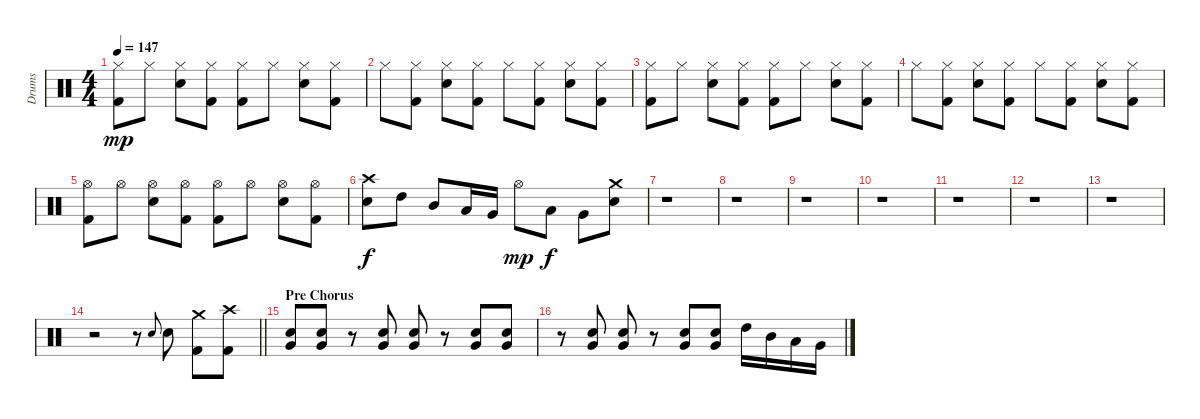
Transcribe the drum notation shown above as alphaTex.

\track ("Drums" "Drums") {instrument percussion}
\staff {score}
\articulation defaults
\ts (4 4)
\tempo 147
\clef neutral
\ks c
("Hi-Hat (closed)" "Kick (hit) 2").8{dy mp} "Hi-Hat (closed)".8 ("Hi-Hat (closed)" "Snare (hit) 2").8 ("Hi-Hat (closed)" "Kick (hit) 2").8 ("Hi-Hat (closed)" "Kick (hit) 2").8 "Hi-Hat (closed)".8 ("Hi-Hat (closed)" "Snare (hit) 2").8 ("Hi-Hat (closed)" "Kick (hit) 2").8 |
"Hi-Hat (closed)".8 ("Hi-Hat (closed)" "Kick (hit) 2").8 ("Hi-Hat (closed)" "Snare (hit) 2").8 ("Hi-Hat (closed)" "Kick (hit) 2").8 "Hi-Hat (closed)".8 ("Hi-Hat (closed)" "Kick (hit) 2").8 ("Hi-Hat (closed)" "Snare (hit) 2").8 ("Hi-Hat (closed)" "Kick (hit) 2").8 |
("Hi-Hat (closed)" "Kick (hit) 2").8 "Hi-Hat (closed)".8 ("Hi-Hat (closed)" "Snare (hit) 2").8 ("Hi-Hat (closed)" "Kick (hit) 2").8 ("Hi-Hat (closed)" "Kick (hit) 2").8 "Hi-Hat (closed)".8 ("Hi-Hat (closed)" "Snare (hit) 2").8 ("Hi-Hat (closed)" "Kick (hit) 2").8 |
"Hi-Hat (closed)".8 ("Hi-Hat (closed)" "Kick (hit) 2").8 ("Hi-Hat (closed)" "Snare (hit) 2").8 ("Hi-Hat (closed)" "Kick (hit) 2").8 "Hi-Hat (closed)".8 ("Hi-Hat (closed)" "Kick (hit) 2").8 ("Hi-Hat (closed)" "Snare (hit) 2").8 ("Hi-Hat (closed)" "Kick (hit) 2").8 |
("Hi-Hat (open)" "Kick (hit) 2").8 "Hi-Hat (open)".8 ("Hi-Hat (open)" "Snare (hit) 2").8 ("Hi-Hat (open)" "Kick (hit) 2").8 ("Hi-Hat (open)" "Kick (hit) 2").8 "Hi-Hat (open)".8 ("Hi-Hat (open)" "Snare (hit) 2").8 ("Hi-Hat (open)" "Kick (hit) 2").8 |
("Crash high (hit)" "Snare (hit) 2").8{dy f} "High Tom (hit)".8 "Mid Tom (hit)".8 "Low Tom (hit)".16 "Very Low Tom (hit)".16 "Hi-Hat (open)".8{dy mp} "Low Tom (hit)".8{dy f} "Very Low Tom (hit)".8 ("Crash medium (hit)" "Snare (hit) 2").8 |
r.1 |
r.1 |
r.1 |
r.1 |
r.1 |
r.1 |
r.1 |
\barLineRight lightlight
r.2 r.8 "Snare (hit) 2".8{gr onbeat} "Snare (hit) 2".8 ("Crash medium (hit)" "Kick (hit) 2").8 ("Crash high (hit)" "Kick (hit) 2").8 |
\section ("" "Pre Chorus")
("Very Low Tom (hit)" "Snare (hit) 2").8 ("Very Low Tom (hit)" "Snare (hit) 2").8 r.8 ("Very Low Tom (hit)" "Snare (hit) 2").8 ("Very Low Tom (hit)" "Snare (hit) 2").8 r.8 ("Very Low Tom (hit)" "Snare (hit) 2").8 ("Very Low Tom (hit)" "Snare (hit) 2").8 |
r.8 ("Very Low Tom (hit)" "Snare (hit) 2").8 ("Very Low Tom (hit)" "Snare (hit) 2").8 r.8 ("Very Low Tom (hit)" "Snare (hit) 2").8 ("Very Low Tom (hit)" "Snare (hit) 2").8 "High Tom (hit)".16 "Mid Tom (hit)".16 "Low Tom (hit)".16 "Very Low Tom (hit)".16
